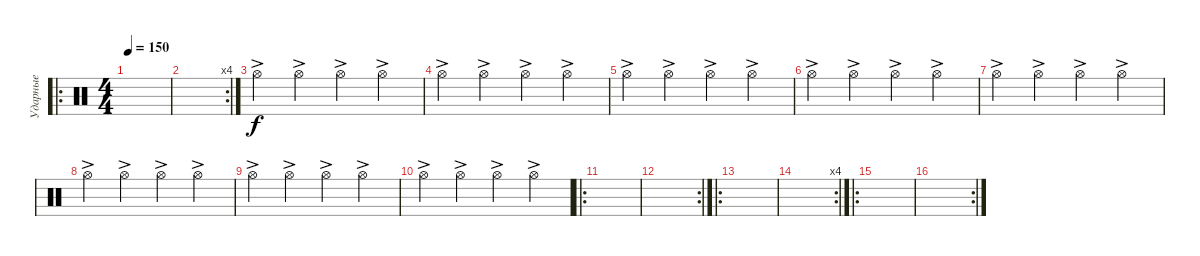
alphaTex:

\track ("Ударные" "Ударные") {instrument percussion}
\staff {score}
\articulation defaults
\ro
\ts (4 4)
\tempo 150
\clef neutral
\ks c
|
\rc 4
|
"Hi-Hat (open)"{ac}.4 "Hi-Hat (open)"{ac}.4 "Hi-Hat (open)"{ac}.4 "Hi-Hat (open)"{ac}.4 |
"Hi-Hat (open)"{ac}.4 "Hi-Hat (open)"{ac}.4 "Hi-Hat (open)"{ac}.4 "Hi-Hat (open)"{ac}.4 |
"Hi-Hat (open)"{ac}.4 "Hi-Hat (open)"{ac}.4 "Hi-Hat (open)"{ac}.4 "Hi-Hat (open)"{ac}.4 |
"Hi-Hat (open)"{ac}.4 "Hi-Hat (open)"{ac}.4 "Hi-Hat (open)"{ac}.4 "Hi-Hat (open)"{ac}.4 |
"Hi-Hat (open)"{ac}.4 "Hi-Hat (open)"{ac}.4 "Hi-Hat (open)"{ac}.4 "Hi-Hat (open)"{ac}.4 |
"Hi-Hat (open)"{ac}.4 "Hi-Hat (open)"{ac}.4 "Hi-Hat (open)"{ac}.4 "Hi-Hat (open)"{ac}.4 |
"Hi-Hat (open)"{ac}.4 "Hi-Hat (open)"{ac}.4 "Hi-Hat (open)"{ac}.4 "Hi-Hat (open)"{ac}.4 |
"Hi-Hat (open)"{ac}.4 "Hi-Hat (open)"{ac}.4 "Hi-Hat (open)"{ac}.4 "Hi-Hat (open)"{ac}.4 |
\ro
|
\rc 2
|
\ro
|
\rc 4
|
\ro
|
\rc 2
